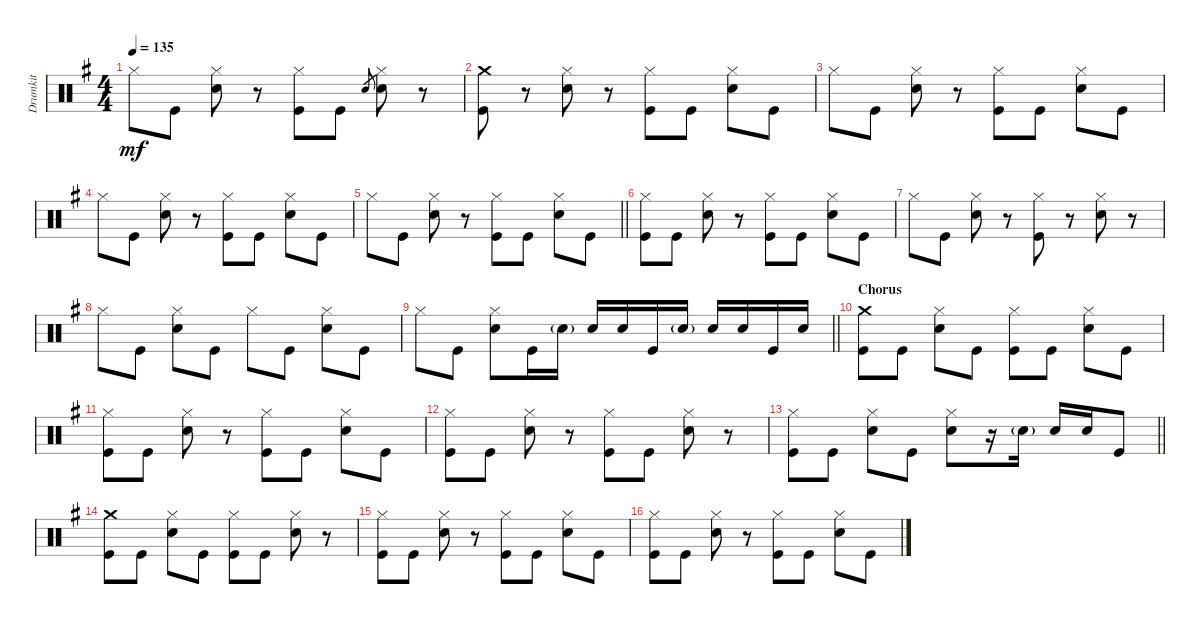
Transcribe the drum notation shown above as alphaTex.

\track ("Drumkit" "Drumkit") {instrument percussion}
\staff {score}
\articulation defaults
\ts (4 4)
\tempo 135
\clef neutral
\ks g "Hi-Hat (closed)".8{dy mf} "Kick (hit)".8
("Hi-Hat (closed)" "Snare (hit) 2").8 r.8 ("Hi-Hat (closed)" "Kick (hit)").8 "Kick (hit)".8 "Snare (hit)".8{gr} ("Hi-Hat (closed)" "Snare (hit) 2").8 r.8 |
("Kick (hit)" "Crash medium (hit)").8 r.8 ("Hi-Hat (closed)" "Snare (hit) 2").8 r.8 ("Hi-Hat (closed)" "Kick (hit)").8 "Kick (hit)".8 ("Hi-Hat (closed)" "Snare (hit) 2").8 "Kick (hit)".8 |
"Hi-Hat (closed)".8 "Kick (hit)".8 ("Hi-Hat (closed)" "Snare (hit) 2").8 r.8 ("Hi-Hat (closed)" "Kick (hit)").8 "Kick (hit)".8 ("Hi-Hat (closed)" "Snare (hit) 2").8 "Kick (hit)".8 |
"Hi-Hat (closed)".8 "Kick (hit)".8 ("Hi-Hat (closed)" "Snare (hit) 2").8 r.8 ("Hi-Hat (closed)" "Kick (hit)").8 "Kick (hit)".8 ("Hi-Hat (closed)" "Snare (hit) 2").8 "Kick (hit)".8 |
\barLineRight lightlight "Hi-Hat (closed)".8 "Kick (hit)".8
("Hi-Hat (closed)" "Snare (hit) 2").8 r.8 ("Hi-Hat (closed)" "Kick (hit)").8 "Kick (hit)".8 ("Hi-Hat (closed)" "Snare (hit) 2").8 "Kick (hit)".8 |
("Kick (hit)" "Hi-Hat (closed)").8 "Kick (hit)".8 ("Hi-Hat (closed)" "Snare (hit) 2").8 r.8 ("Hi-Hat (closed)" "Kick (hit)").8 "Kick (hit)".8 ("Hi-Hat (closed)" "Snare (hit) 2").8 "Kick (hit)".8 |
"Hi-Hat (closed)".8 "Kick (hit)".8 ("Hi-Hat (closed)" "Snare (hit) 2").8 r.8 ("Hi-Hat (closed)" "Kick (hit)").8 r.8 ("Hi-Hat (closed)" "Snare (hit) 2").8 r.8 |
"Hi-Hat (closed)".8 "Kick (hit)".8 ("Hi-Hat (closed)" "Snare (hit) 2").8 "Kick (hit)".8 "Hi-Hat (closed)".8 "Kick (hit)".8 ("Hi-Hat (closed)" "Snare (hit) 2").8 "Kick (hit)".8 |
\barLineRight lightlight "Hi-Hat (closed)".8 "Kick (hit)".8
("Hi-Hat (closed)" "Snare (hit) 2").8 "Kick (hit)".16 "Snare (hit) 2"{g}.16 "Snare (hit) 2".16 "Snare (hit) 2".16 "Kick (hit)".16 "Snare (hit) 2"{g}.16 "Snare (hit) 2".16 "Snare (hit) 2".16 "Kick (hit)".16 "Snare (hit) 2".16 |
\section ("" "Chorus")
("Kick (hit)" "Crash medium (hit)").8 "Kick (hit)".8 ("Snare (hit) 2" "Hi-Hat (closed)").8 "Kick (hit)".8 ("Kick (hit)" "Hi-Hat (closed)").8 "Kick (hit)".8 ("Snare (hit) 2" "Hi-Hat (closed)").8 "Kick (hit)".8 |
("Kick (hit)" "Hi-Hat (closed)").8 "Kick (hit)".8 ("Snare (hit) 2" "Hi-Hat (closed)").8 r.8 ("Kick (hit)" "Hi-Hat (closed)").8 "Kick (hit)".8 ("Snare (hit) 2" "Hi-Hat (closed)").8 "Kick (hit)".8 |
("Kick (hit)" "Hi-Hat (closed)").8 "Kick (hit)".8 ("Snare (hit) 2" "Hi-Hat (closed)").8 r.8 ("Kick (hit)" "Hi-Hat (closed)").8 "Kick (hit)".8 ("Snare (hit) 2" "Hi-Hat (closed)").8 r.8 |
\barLineRight lightlight
("Kick (hit)" "Hi-Hat (closed)").8 "Kick (hit)".8 ("Snare (hit) 2" "Hi-Hat (closed)").8 "Kick (hit)".8 ("Snare (hit) 2" "Hi-Hat (closed)").8 r.16 "Snare (hit) 2"{g}.16 "Snare (hit) 2".16 "Snare (hit) 2".16 "Kick (hit)".8 |
("Kick (hit)" "Crash medium (hit)").8 "Kick (hit)".8 ("Snare (hit) 2" "Hi-Hat (closed)").8 "Kick (hit)".8 ("Kick (hit)" "Hi-Hat (closed)").8 "Kick (hit)".8 ("Snare (hit) 2" "Hi-Hat (closed)").8 r.8 |
("Kick (hit)" "Hi-Hat (closed)").8 "Kick (hit)".8 ("Snare (hit) 2" "Hi-Hat (closed)").8 r.8 ("Kick (hit)" "Hi-Hat (closed)").8 "Kick (hit)".8 ("Snare (hit) 2" "Hi-Hat (closed)").8 "Kick (hit)".8 |
("Kick (hit)" "Hi-Hat (closed)").8 "Kick (hit)".8 ("Snare (hit) 2" "Hi-Hat (closed)").8 r.8 ("Kick (hit)" "Hi-Hat (closed)").8 "Kick (hit)".8 ("Snare (hit) 2" "Hi-Hat (closed)").8 "Kick (hit)".8
